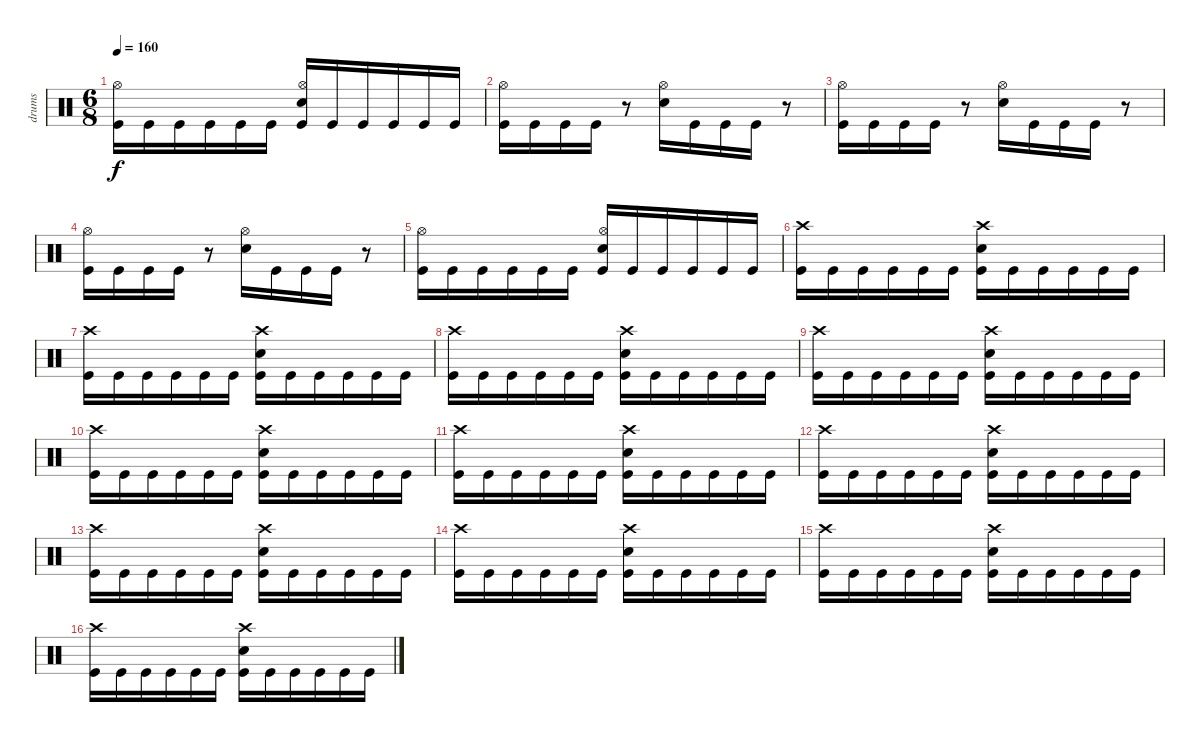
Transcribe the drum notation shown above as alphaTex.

\track ("drums" "drums") {instrument percussion}
\staff {score}
\articulation defaults
\ts (6 8)
\tempo 160
\clef neutral
\ks c
("Kick (hit)" "Hi-Hat (open)").16{dy f} "Kick (hit)".16 "Kick (hit)".16 "Kick (hit)".16 "Kick (hit)".16 "Kick (hit)".16 ("Kick (hit)" "Electric Snare (hit)" "Hi-Hat (open)").16 "Kick (hit)".16 "Kick (hit)".16 "Kick (hit)".16 "Kick (hit)".16 "Kick (hit)".16 |
("Kick (hit)" "Hi-Hat (open)").16 "Kick (hit)".16 "Kick (hit)".16 "Kick (hit)".16 r.8 ("Electric Snare (hit)" "Hi-Hat (open)").16 "Kick (hit)".16 "Kick (hit)".16 "Kick (hit)".16 r.8 |
("Kick (hit)" "Hi-Hat (open)").16 "Kick (hit)".16 "Kick (hit)".16 "Kick (hit)".16 r.8 ("Electric Snare (hit)" "Hi-Hat (open)").16 "Kick (hit)".16 "Kick (hit)".16 "Kick (hit)".16 r.8 |
("Kick (hit)" "Hi-Hat (open)").16 "Kick (hit)".16 "Kick (hit)".16 "Kick (hit)".16 r.8 ("Electric Snare (hit)" "Hi-Hat (open)").16 "Kick (hit)".16 "Kick (hit)".16 "Kick (hit)".16 r.8 |
("Kick (hit)" "Hi-Hat (open)").16 "Kick (hit)".16 "Kick (hit)".16 "Kick (hit)".16 "Kick (hit)".16 "Kick (hit)".16 ("Kick (hit)" "Electric Snare (hit)" "Hi-Hat (open)").16 "Kick (hit)".16 "Kick (hit)".16 "Kick (hit)".16 "Kick (hit)".16 "Kick (hit)".16 |
("Kick (hit)" "Crash high (hit)").16 "Kick (hit)".16 "Kick (hit)".16 "Kick (hit)".16 "Kick (hit)".16 "Kick (hit)".16 ("Kick (hit)" "Electric Snare (hit)" "Crash high (hit)").16 "Kick (hit)".16 "Kick (hit)".16 "Kick (hit)".16 "Kick (hit)".16 "Kick (hit)".16 |
("Kick (hit)" "Crash high (hit)").16 "Kick (hit)".16 "Kick (hit)".16 "Kick (hit)".16 "Kick (hit)".16 "Kick (hit)".16 ("Kick (hit)" "Electric Snare (hit)" "Crash high (hit)").16 "Kick (hit)".16 "Kick (hit)".16 "Kick (hit)".16 "Kick (hit)".16 "Kick (hit)".16 |
("Kick (hit)" "Crash high (hit)").16 "Kick (hit)".16 "Kick (hit)".16 "Kick (hit)".16 "Kick (hit)".16 "Kick (hit)".16 ("Kick (hit)" "Electric Snare (hit)" "Crash high (hit)").16 "Kick (hit)".16 "Kick (hit)".16 "Kick (hit)".16 "Kick (hit)".16 "Kick (hit)".16 |
("Kick (hit)" "Crash high (hit)").16 "Kick (hit)".16 "Kick (hit)".16 "Kick (hit)".16 "Kick (hit)".16 "Kick (hit)".16 ("Kick (hit)" "Electric Snare (hit)" "Crash high (hit)").16 "Kick (hit)".16 "Kick (hit)".16 "Kick (hit)".16 "Kick (hit)".16 "Kick (hit)".16 |
("Kick (hit)" "Crash high (hit)").16 "Kick (hit)".16 "Kick (hit)".16 "Kick (hit)".16 "Kick (hit)".16 "Kick (hit)".16 ("Kick (hit)" "Electric Snare (hit)" "Crash high (hit)").16 "Kick (hit)".16 "Kick (hit)".16 "Kick (hit)".16 "Kick (hit)".16 "Kick (hit)".16 |
("Kick (hit)" "Crash high (hit)").16 "Kick (hit)".16 "Kick (hit)".16 "Kick (hit)".16 "Kick (hit)".16 "Kick (hit)".16 ("Kick (hit)" "Electric Snare (hit)" "Crash high (hit)").16 "Kick (hit)".16 "Kick (hit)".16 "Kick (hit)".16 "Kick (hit)".16 "Kick (hit)".16 |
("Kick (hit)" "Crash high (hit)").16 "Kick (hit)".16 "Kick (hit)".16 "Kick (hit)".16 "Kick (hit)".16 "Kick (hit)".16 ("Kick (hit)" "Electric Snare (hit)" "Crash high (hit)").16 "Kick (hit)".16 "Kick (hit)".16 "Kick (hit)".16 "Kick (hit)".16 "Kick (hit)".16 |
("Kick (hit)" "Crash high (hit)").16 "Kick (hit)".16 "Kick (hit)".16 "Kick (hit)".16 "Kick (hit)".16 "Kick (hit)".16 ("Kick (hit)" "Electric Snare (hit)" "Crash high (hit)").16 "Kick (hit)".16 "Kick (hit)".16 "Kick (hit)".16 "Kick (hit)".16 "Kick (hit)".16 |
("Kick (hit)" "Crash high (hit)").16 "Kick (hit)".16 "Kick (hit)".16 "Kick (hit)".16 "Kick (hit)".16 "Kick (hit)".16 ("Kick (hit)" "Electric Snare (hit)" "Crash high (hit)").16 "Kick (hit)".16 "Kick (hit)".16 "Kick (hit)".16 "Kick (hit)".16 "Kick (hit)".16 |
("Kick (hit)" "Crash high (hit)").16 "Kick (hit)".16 "Kick (hit)".16 "Kick (hit)".16 "Kick (hit)".16 "Kick (hit)".16 ("Kick (hit)" "Electric Snare (hit)" "Crash high (hit)").16 "Kick (hit)".16 "Kick (hit)".16 "Kick (hit)".16 "Kick (hit)".16 "Kick (hit)".16 |
("Kick (hit)" "Crash high (hit)").16 "Kick (hit)".16 "Kick (hit)".16 "Kick (hit)".16 "Kick (hit)".16 "Kick (hit)".16 ("Kick (hit)" "Electric Snare (hit)" "Crash high (hit)").16 "Kick (hit)".16 "Kick (hit)".16 "Kick (hit)".16 "Kick (hit)".16 "Kick (hit)".16
